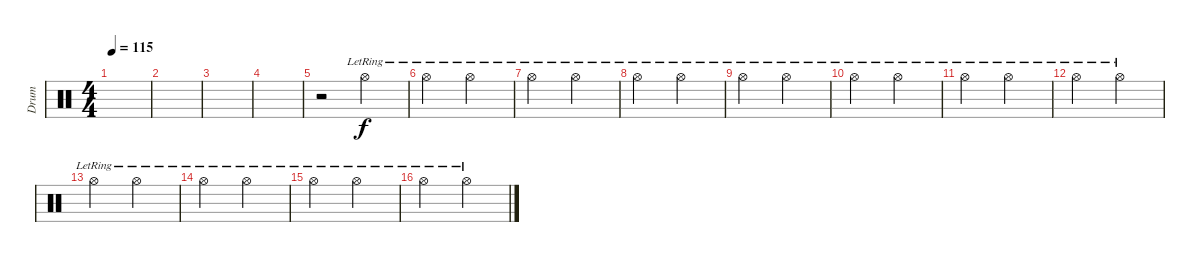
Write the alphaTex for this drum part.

\track ("Drum" "Drum") {instrument percussion}
\staff {score}
\articulation defaults
\ts (4 4)
\tempo 115
\clef neutral
\ks c
|
|
|
|
r.2 "Hi-Hat (open)"{lr}.2 |
"Hi-Hat (open)"{lr}.2 "Hi-Hat (open)"{lr}.2 |
"Hi-Hat (open)"{lr}.2 "Hi-Hat (open)"{lr}.2 |
"Hi-Hat (open)"{lr}.2 "Hi-Hat (open)"{lr}.2 |
"Hi-Hat (open)"{lr}.2 "Hi-Hat (open)"{lr}.2 |
"Hi-Hat (open)"{lr}.2 "Hi-Hat (open)"{lr}.2 |
"Hi-Hat (open)"{lr}.2 "Hi-Hat (open)"{lr}.2 |
"Hi-Hat (open)"{lr}.2 "Hi-Hat (open)"{lr}.2 |
"Hi-Hat (open)"{lr}.2 "Hi-Hat (open)"{lr}.2 |
"Hi-Hat (open)"{lr}.2 "Hi-Hat (open)"{lr}.2 |
"Hi-Hat (open)"{lr}.2 "Hi-Hat (open)"{lr}.2 |
"Hi-Hat (open)"{lr}.2 "Hi-Hat (open)"{lr}.2
